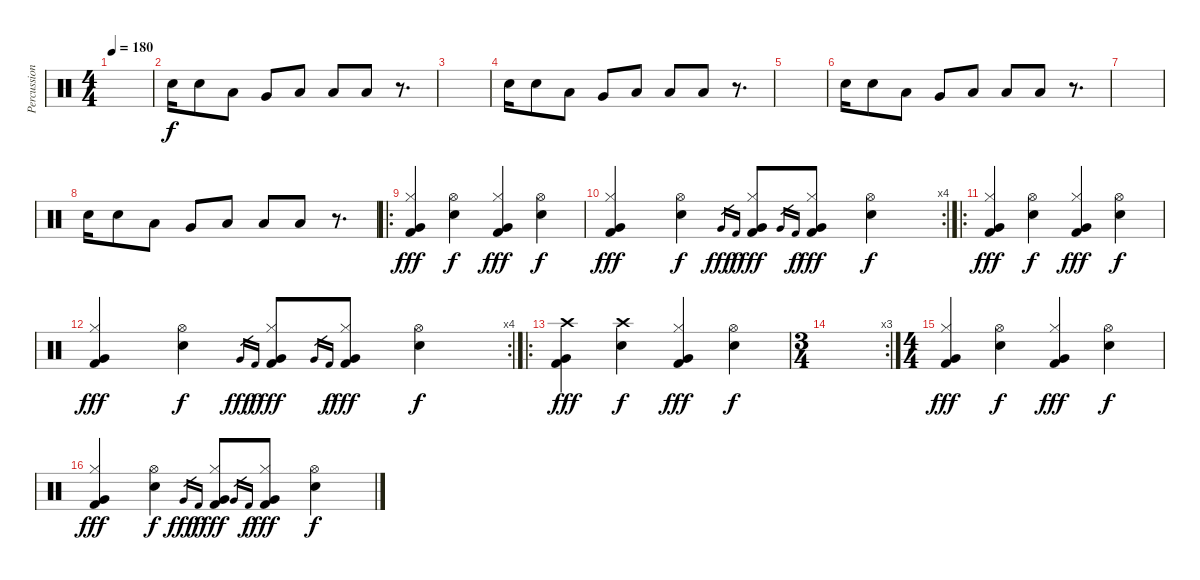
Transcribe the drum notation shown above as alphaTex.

\track ("Percussion" "Percussion") {instrument percussion}
\staff {score}
\articulation defaults
\ts (4 4)
\tempo 180
\clef neutral
\ks c
|
"Snare (hit) 2".16 "Snare (hit) 2".8 "Low Tom (hit)".8 "Very Low Tom (hit)".8 "Low Tom (hit)".8 "Low Tom (hit)".8 "Low Floor Tom (hit)".8 r.8{d} |
|
"Snare (hit) 2".16 "Snare (hit) 2".8 "Low Tom (hit)".8 "Very Low Tom (hit)".8 "Low Tom (hit)".8 "Low Tom (hit)".8 "Low Floor Tom (hit)".8 r.8{d} |
|
"Snare (hit) 2".16 "Snare (hit) 2".8 "Low Tom (hit)".8 "Very Low Tom (hit)".8 "Low Tom (hit)".8 "Low Tom (hit)".8 "Low Floor Tom (hit)".8 r.8{d} |
|
"Snare (hit) 2".16 "Snare (hit) 2".8 "Low Tom (hit)".8 "Very Low Tom (hit)".8 "Low Tom (hit)".8 "Low Tom (hit)".8 "Low Floor Tom (hit)".8 r.8{d} |
\ro
("Hi-Hat (closed)" "Very Low Tom (hit)" "Kick (hit) 2").4{dy fff} ("Hi-Hat (open)" "Electric Snare (hit)").4{dy f} ("Hi-Hat (closed)" "Very Low Tom (hit)" "Kick (hit) 2").4{dy fff} ("Hi-Hat (open)" "Electric Snare (hit)").4{dy f} |
\rc 4
("Hi-Hat (closed)" "Very Low Tom (hit)" "Kick (hit) 2").4{dy fff} ("Hi-Hat (open)" "Electric Snare (hit)").4{dy f} "Very Low Tom (hit)".16{gr dy fff} "Kick (hit) 2".16{gr dy f} ("Hi-Hat (closed)" "Very Low Tom (hit)" "Kick (hit) 2").8{dy fff} "Very Low Tom (hit)".16{gr} "Kick (hit) 2".16{gr dy f} ("Hi-Hat (closed)" "Very Low Tom (hit)" "Kick (hit) 2").8{dy fff} ("Hi-Hat (open)" "Electric Snare (hit)").4{dy f} |
\ro
("Hi-Hat (closed)" "Very Low Tom (hit)" "Kick (hit) 2").4{dy fff} ("Hi-Hat (open)" "Electric Snare (hit)").4{dy f} ("Hi-Hat (closed)" "Very Low Tom (hit)" "Kick (hit) 2").4{dy fff} ("Hi-Hat (open)" "Electric Snare (hit)").4{dy f} |
\rc 4
("Hi-Hat (closed)" "Very Low Tom (hit)" "Kick (hit) 2").4{dy fff} ("Hi-Hat (open)" "Electric Snare (hit)").4{dy f} "Very Low Tom (hit)".16{gr dy fff} "Kick (hit) 2".16{gr dy f} ("Hi-Hat (closed)" "Very Low Tom (hit)" "Kick (hit) 2").8{dy fff} "Very Low Tom (hit)".16{gr} "Kick (hit) 2".16{gr dy f} ("Hi-Hat (closed)" "Very Low Tom (hit)" "Kick (hit) 2").8{dy fff} ("Hi-Hat (open)" "Electric Snare (hit)").4{dy f} |
\ro
("Crash high (hit)" "Very Low Tom (hit)" "Kick (hit) 2").4{dy fff} ("Crash high (hit)" "Electric Snare (hit)").4{dy f} ("Hi-Hat (closed)" "Very Low Tom (hit)" "Kick (hit) 2").4{dy fff} ("Hi-Hat (open)" "Electric Snare (hit)").4{dy f} |
\rc 3
\ts (3 4)
|
\ts (4 4)
("Hi-Hat (closed)" "Very Low Tom (hit)" "Kick (hit) 2").4{dy fff} ("Hi-Hat (open)" "Electric Snare (hit)").4{dy f} ("Hi-Hat (closed)" "Very Low Tom (hit)" "Kick (hit) 2").4{dy fff} ("Hi-Hat (open)" "Electric Snare (hit)").4{dy f} |
("Hi-Hat (closed)" "Very Low Tom (hit)" "Kick (hit) 2").4{dy fff} ("Hi-Hat (open)" "Electric Snare (hit)").4{dy f} "Very Low Tom (hit)".16{gr dy fff} "Kick (hit) 2".16{gr dy f} ("Hi-Hat (closed)" "Very Low Tom (hit)" "Kick (hit) 2").8{dy fff} "Very Low Tom (hit)".16{gr} "Kick (hit) 2".16{gr dy f} ("Hi-Hat (closed)" "Very Low Tom (hit)" "Kick (hit) 2").8{dy fff} ("Hi-Hat (open)" "Electric Snare (hit)").4{dy f}
